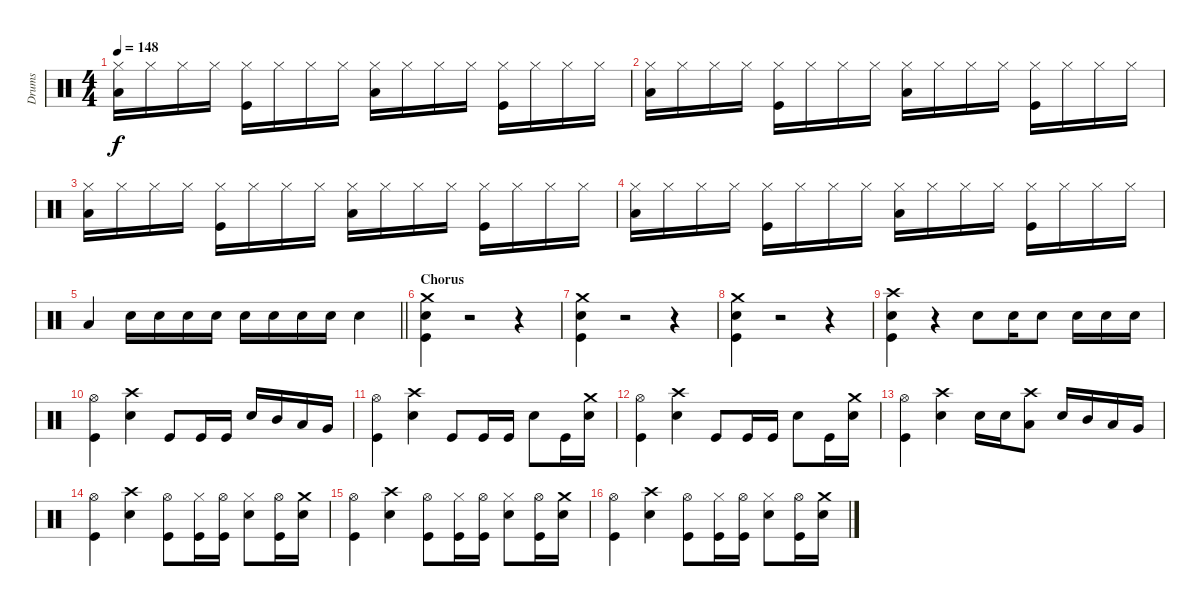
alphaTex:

\track ("Drums" "Drums") {instrument percussion}
\staff {score}
\articulation defaults
\ts (4 4)
\tempo 148
\clef neutral
\ks c
("Hi-Hat (closed)" "Low Floor Tom (hit)").16{dy f} "Hi-Hat (closed)".16 "Hi-Hat (closed)".16 "Hi-Hat (closed)".16 ("Hi-Hat (closed)" "Kick (hit)").16 "Hi-Hat (closed)".16 "Hi-Hat (closed)".16 "Hi-Hat (closed)".16 ("Hi-Hat (closed)" "Low Floor Tom (hit)").16 "Hi-Hat (closed)".16 "Hi-Hat (closed)".16 "Hi-Hat (closed)".16 ("Hi-Hat (closed)" "Kick (hit)").16 "Hi-Hat (closed)".16 "Hi-Hat (closed)".16 "Hi-Hat (closed)".16 |
("Hi-Hat (closed)" "Low Floor Tom (hit)").16 "Hi-Hat (closed)".16 "Hi-Hat (closed)".16 "Hi-Hat (closed)".16 ("Hi-Hat (closed)" "Kick (hit)").16 "Hi-Hat (closed)".16 "Hi-Hat (closed)".16 "Hi-Hat (closed)".16 ("Hi-Hat (closed)" "Low Floor Tom (hit)").16 "Hi-Hat (closed)".16 "Hi-Hat (closed)".16 "Hi-Hat (closed)".16 ("Hi-Hat (closed)" "Kick (hit)").16 "Hi-Hat (closed)".16 "Hi-Hat (closed)".16 "Hi-Hat (closed)".16 |
("Hi-Hat (closed)" "Low Floor Tom (hit)").16 "Hi-Hat (closed)".16 "Hi-Hat (closed)".16 "Hi-Hat (closed)".16 ("Hi-Hat (closed)" "Kick (hit)").16 "Hi-Hat (closed)".16 "Hi-Hat (closed)".16 "Hi-Hat (closed)".16 ("Hi-Hat (closed)" "Low Floor Tom (hit)").16 "Hi-Hat (closed)".16 "Hi-Hat (closed)".16 "Hi-Hat (closed)".16 ("Hi-Hat (closed)" "Kick (hit)").16 "Hi-Hat (closed)".16 "Hi-Hat (closed)".16 "Hi-Hat (closed)".16 |
("Hi-Hat (closed)" "Low Floor Tom (hit)").16 "Hi-Hat (closed)".16 "Hi-Hat (closed)".16 "Hi-Hat (closed)".16 ("Hi-Hat (closed)" "Kick (hit)").16 "Hi-Hat (closed)".16 "Hi-Hat (closed)".16 "Hi-Hat (closed)".16 ("Hi-Hat (closed)" "Low Floor Tom (hit)").16 "Hi-Hat (closed)".16 "Hi-Hat (closed)".16 "Hi-Hat (closed)".16 ("Hi-Hat (closed)" "Kick (hit)").16 "Hi-Hat (closed)".16 "Hi-Hat (closed)".16 "Hi-Hat (closed)".16 |
\barLineRight lightlight "Low Floor Tom (hit)".4 "Electric Snare (hit)".16 "Electric Snare (hit)".16 "Electric Snare (hit)".16 "Electric Snare (hit)".16 "Electric Snare (hit)".16 "Electric Snare (hit)".16 "Electric Snare (hit)".16 "Electric Snare (hit)".16 "Electric Snare (hit)".4
|
\section ("" "Chorus")
("Crash medium (hit)" "Electric Snare (hit)" "Kick (hit)").4 r.2 r.4 |
("Crash medium (hit)" "Electric Snare (hit)" "Kick (hit)").4 r.2 r.4 |
("Crash medium (hit)" "Electric Snare (hit)" "Kick (hit)").4 r.2 r.4 |
("Crash high (hit)" "Electric Snare (hit)" "Kick (hit)").4 r.4 "Electric Snare (hit)".8 "Electric Snare (hit)".16 "Snare (hit) 2".8 "Electric Snare (hit)".16 "Electric Snare (hit)".16 "Electric Snare (hit)".16 |
("Hi-Hat (open)" "Kick (hit)").4 ("Crash high (hit)" "Electric Snare (hit)").4 "Kick (hit)".8 "Kick (hit)".16 "Kick (hit)".16 "Electric Snare (hit)".16 "Mid Tom (hit)".16 "Low Tom (hit)".16 "Very Low Tom (hit)".16 |
("Hi-Hat (open)" "Kick (hit)").4 ("Crash high (hit)" "Electric Snare (hit)").4 "Kick (hit)".8 "Kick (hit)".16 "Kick (hit)".16 "Electric Snare (hit)".8 "Kick (hit)".16 ("Crash medium (hit)" "Electric Snare (hit)").16 |
("Hi-Hat (open)" "Kick (hit)").4 ("Crash high (hit)" "Electric Snare (hit)").4 "Kick (hit)".8 "Kick (hit)".16 "Kick (hit)".16 "Electric Snare (hit)".8 "Kick (hit)".16 ("Crash medium (hit)" "Electric Snare (hit)").16 |
("Hi-Hat (open)" "Kick (hit)").4 ("Crash high (hit)" "Electric Snare (hit)").4 "Electric Snare (hit)".16 "Electric Snare (hit)".16 ("Crash high (hit)" "Low Floor Tom (hit)").8 "Electric Snare (hit)".16 "Mid Tom (hit)".16 "Low Tom (hit)".16 "Very Low Tom (hit)".16 |
("Hi-Hat (open)" "Kick (hit)").4 ("Crash high (hit)" "Electric Snare (hit)").4 ("Hi-Hat (open)" "Kick (hit)").8 ("Hi-Hat (closed)" "Kick (hit)").16 ("Hi-Hat (open)" "Kick (hit)").16 ("Hi-Hat (closed)" "Electric Snare (hit)").8 ("Hi-Hat (open)" "Kick (hit)").16 ("Crash medium (hit)" "Electric Snare (hit)").16 |
("Hi-Hat (open)" "Kick (hit)").4 ("Crash high (hit)" "Electric Snare (hit)").4 ("Hi-Hat (open)" "Kick (hit)").8 ("Hi-Hat (closed)" "Kick (hit)").16 ("Hi-Hat (open)" "Kick (hit)").16 ("Hi-Hat (closed)" "Electric Snare (hit)").8 ("Hi-Hat (open)" "Kick (hit)").16 ("Crash medium (hit)" "Electric Snare (hit)").16 |
("Hi-Hat (open)" "Kick (hit)").4 ("Crash high (hit)" "Electric Snare (hit)").4 ("Hi-Hat (open)" "Kick (hit)").8 ("Hi-Hat (closed)" "Kick (hit)").16 ("Hi-Hat (open)" "Kick (hit)").16 ("Hi-Hat (closed)" "Electric Snare (hit)").8 ("Hi-Hat (open)" "Kick (hit)").16 ("Crash medium (hit)" "Electric Snare (hit)").16
